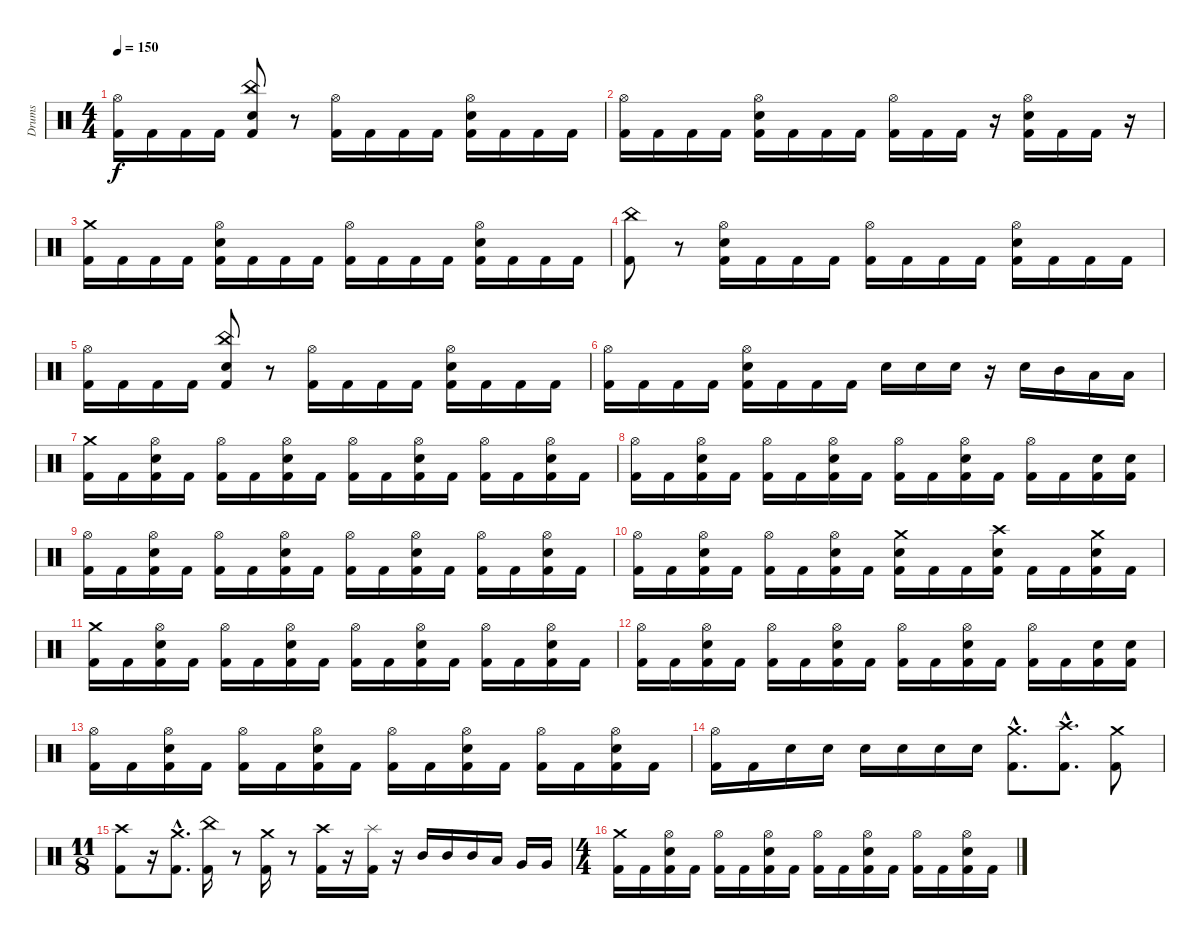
\track ("Drums" "Drums") {instrument percussion}
\staff {score}
\articulation defaults
\ts (4 4)
\tempo 150
\clef neutral
\ks c
("Hi-Hat (open)" "Kick (hit) 2").16{dy f} "Kick (hit) 2".16 "Kick (hit) 2".16 "Kick (hit) 2".16 ("China (hit)" "Electric Snare (hit)" "Kick (hit) 2").8 r.8 ("Hi-Hat (open)" "Kick (hit) 2").16 "Kick (hit) 2".16 "Kick (hit) 2".16 "Kick (hit) 2".16 ("Hi-Hat (open)" "Electric Snare (hit)" "Kick (hit) 2").16 "Kick (hit) 2".16 "Kick (hit) 2".16 "Kick (hit) 2".16 |
("Hi-Hat (open)" "Kick (hit) 2").16 "Kick (hit) 2".16 "Kick (hit) 2".16 "Kick (hit) 2".16 ("Hi-Hat (open)" "Electric Snare (hit)" "Kick (hit) 2").16 "Kick (hit) 2".16 "Kick (hit) 2".16 "Kick (hit) 2".16 ("Hi-Hat (open)" "Kick (hit) 2").16 "Kick (hit) 2".16 "Kick (hit) 2".16 r.16 ("Electric Snare (hit)" "Hi-Hat (open)" "Kick (hit) 2").16 "Kick (hit) 2".16 "Kick (hit) 2".16 r.16 |
("Crash medium (hit)" "Kick (hit) 2").16 "Kick (hit) 2".16 "Kick (hit) 2".16 "Kick (hit) 2".16 ("Hi-Hat (open)" "Electric Snare (hit)" "Kick (hit) 2").16 "Kick (hit) 2".16 "Kick (hit) 2".16 "Kick (hit) 2".16 ("Hi-Hat (open)" "Kick (hit) 2").16 "Kick (hit) 2".16 "Kick (hit) 2".16 "Kick (hit) 2".16 ("Hi-Hat (open)" "Electric Snare (hit)" "Kick (hit) 2").16 "Kick (hit) 2".16 "Kick (hit) 2".16 "Kick (hit) 2".16 |
("China (hit)" "Kick (hit) 2").8 r.8 ("Electric Snare (hit)" "Hi-Hat (open)" "Kick (hit) 2").16 "Kick (hit) 2".16 "Kick (hit) 2".16 "Kick (hit) 2".16 ("Hi-Hat (open)" "Kick (hit) 2").16 "Kick (hit) 2".16 "Kick (hit) 2".16 "Kick (hit) 2".16 ("Electric Snare (hit)" "Hi-Hat (open)" "Kick (hit) 2").16 "Kick (hit) 2".16 "Kick (hit) 2".16 "Kick (hit) 2".16 |
("Hi-Hat (open)" "Kick (hit) 2").16 "Kick (hit) 2".16 "Kick (hit) 2".16 "Kick (hit) 2".16 ("China (hit)" "Electric Snare (hit)" "Kick (hit) 2").8 r.8 ("Hi-Hat (open)" "Kick (hit) 2").16 "Kick (hit) 2".16 "Kick (hit) 2".16 "Kick (hit) 2".16 ("Hi-Hat (open)" "Electric Snare (hit)" "Kick (hit) 2").16 "Kick (hit) 2".16 "Kick (hit) 2".16 "Kick (hit) 2".16 |
("Hi-Hat (open)" "Kick (hit) 2").16 "Kick (hit) 2".16 "Kick (hit) 2".16 "Kick (hit) 2".16 ("Hi-Hat (open)" "Electric Snare (hit)" "Kick (hit) 2").16 "Kick (hit) 2".16 "Kick (hit) 2".16 "Kick (hit) 2".16 "Electric Snare (hit)".16 "Electric Snare (hit)".16 "Electric Snare (hit)".16 r.16 "Electric Snare (hit)".16 "Mid Tom (hit)".16 "Low Tom (hit)".16 "Low Floor Tom (hit)".16 |
("Crash medium (hit)" "Kick (hit) 2").16 "Kick (hit) 2".16 ("Hi-Hat (open)" "Electric Snare (hit)" "Kick (hit) 2").16 "Kick (hit) 2".16 ("Hi-Hat (open)" "Kick (hit) 2").16 "Kick (hit) 2".16 ("Hi-Hat (open)" "Electric Snare (hit)" "Kick (hit) 2").16 "Kick (hit) 2".16 ("Hi-Hat (open)" "Kick (hit) 2").16 "Kick (hit) 2".16 ("Hi-Hat (open)" "Electric Snare (hit)" "Kick (hit) 2").16 "Kick (hit) 2".16 ("Hi-Hat (open)" "Kick (hit) 2").16 "Kick (hit) 2".16 ("Hi-Hat (open)" "Electric Snare (hit)" "Kick (hit) 2").16 "Kick (hit) 2".16 |
("Hi-Hat (open)" "Kick (hit) 2").16 "Kick (hit) 2".16 ("Hi-Hat (open)" "Electric Snare (hit)" "Kick (hit) 2").16 "Kick (hit) 2".16 ("Hi-Hat (open)" "Kick (hit) 2").16 "Kick (hit) 2".16 ("Hi-Hat (open)" "Electric Snare (hit)" "Kick (hit) 2").16 "Kick (hit) 2".16 ("Hi-Hat (open)" "Kick (hit) 2").16 "Kick (hit) 2".16 ("Hi-Hat (open)" "Electric Snare (hit)" "Kick (hit) 2").16 "Kick (hit) 2".16 ("Hi-Hat (open)" "Kick (hit) 2").16 "Kick (hit) 2".16 ("Electric Snare (hit)" "Kick (hit) 2").16 ("Electric Snare (hit)" "Kick (hit) 2").16 |
("Hi-Hat (open)" "Kick (hit) 2").16 "Kick (hit) 2".16 ("Hi-Hat (open)" "Electric Snare (hit)" "Kick (hit) 2").16 "Kick (hit) 2".16 ("Hi-Hat (open)" "Kick (hit) 2").16 "Kick (hit) 2".16 ("Hi-Hat (open)" "Electric Snare (hit)" "Kick (hit) 2").16 "Kick (hit) 2".16 ("Hi-Hat (open)" "Kick (hit) 2").16 "Kick (hit) 2".16 ("Hi-Hat (open)" "Electric Snare (hit)" "Kick (hit) 2").16 "Kick (hit) 2".16 ("Hi-Hat (open)" "Kick (hit) 2").16 "Kick (hit) 2".16 ("Hi-Hat (open)" "Electric Snare (hit)" "Kick (hit) 2").16 "Kick (hit) 2".16 |
("Hi-Hat (open)" "Kick (hit) 2").16 "Kick (hit) 2".16 ("Hi-Hat (open)" "Electric Snare (hit)" "Kick (hit) 2").16 "Kick (hit) 2".16 ("Hi-Hat (open)" "Kick (hit) 2").16 "Kick (hit) 2".16 ("Hi-Hat (open)" "Electric Snare (hit)" "Kick (hit) 2").16 "Kick (hit) 2".16 ("Electric Snare (hit)" "Crash medium (hit)" "Kick (hit) 2").16 "Kick (hit) 2".16 "Kick (hit) 2".16 ("Electric Snare (hit)" "Crash high (hit)" "Kick (hit) 2").16 "Kick (hit) 2".16 "Kick (hit) 2".16 ("Electric Snare (hit)" "Crash medium (hit)" "Kick (hit) 2").16 "Kick (hit) 2".16 |
("Crash medium (hit)" "Kick (hit) 2").16 "Kick (hit) 2".16 ("Hi-Hat (open)" "Electric Snare (hit)" "Kick (hit) 2").16 "Kick (hit) 2".16 ("Hi-Hat (open)" "Kick (hit) 2").16 "Kick (hit) 2".16 ("Hi-Hat (open)" "Electric Snare (hit)" "Kick (hit) 2").16 "Kick (hit) 2".16 ("Hi-Hat (open)" "Kick (hit) 2").16 "Kick (hit) 2".16 ("Hi-Hat (open)" "Electric Snare (hit)" "Kick (hit) 2").16 "Kick (hit) 2".16 ("Hi-Hat (open)" "Kick (hit) 2").16 "Kick (hit) 2".16 ("Hi-Hat (open)" "Electric Snare (hit)" "Kick (hit) 2").16 "Kick (hit) 2".16 |
("Hi-Hat (open)" "Kick (hit) 2").16 "Kick (hit) 2".16 ("Hi-Hat (open)" "Electric Snare (hit)" "Kick (hit) 2").16 "Kick (hit) 2".16 ("Hi-Hat (open)" "Kick (hit) 2").16 "Kick (hit) 2".16 ("Hi-Hat (open)" "Electric Snare (hit)" "Kick (hit) 2").16 "Kick (hit) 2".16 ("Hi-Hat (open)" "Kick (hit) 2").16 "Kick (hit) 2".16 ("Hi-Hat (open)" "Electric Snare (hit)" "Kick (hit) 2").16 "Kick (hit) 2".16 ("Hi-Hat (open)" "Kick (hit) 2").16 "Kick (hit) 2".16 ("Electric Snare (hit)" "Kick (hit) 2").16 ("Electric Snare (hit)" "Kick (hit) 2").16 |
("Hi-Hat (open)" "Kick (hit) 2").16 "Kick (hit) 2".16 ("Hi-Hat (open)" "Electric Snare (hit)" "Kick (hit) 2").16 "Kick (hit) 2".16 ("Hi-Hat (open)" "Kick (hit) 2").16 "Kick (hit) 2".16 ("Hi-Hat (open)" "Electric Snare (hit)" "Kick (hit) 2").16 "Kick (hit) 2".16 ("Hi-Hat (open)" "Kick (hit) 2").16 "Kick (hit) 2".16 ("Hi-Hat (open)" "Electric Snare (hit)" "Kick (hit) 2").16 "Kick (hit) 2".16 ("Hi-Hat (open)" "Kick (hit) 2").16 "Kick (hit) 2".16 ("Hi-Hat (open)" "Electric Snare (hit)" "Kick (hit) 2").16 "Kick (hit) 2".16 |
("Hi-Hat (open)" "Kick (hit) 2").16 "Kick (hit) 2".16 "Electric Snare (hit)".16 "Electric Snare (hit)".16 "Electric Snare (hit)".16 "Electric Snare (hit)".16 "Electric Snare (hit)".16 "Electric Snare (hit)".16 ("Crash medium (hit)" "Kick (hit) 2"{hac}).8{d} ("Crash high (hit)" "Kick (hit) 2"{hac}).8{d} ("Crash medium (hit)" "Kick (hit) 2").8 |
\ts (11 8)
("Crash high (hit)" "Kick (hit) 2").8 r.16 ("Crash medium (hit)" "Kick (hit) 2"{hac}).8{d} ("China (hit)" "Kick (hit) 2").16 r.8 ("Crash medium (hit)" "Kick (hit) 2").16 r.8 ("Crash high (hit)" "Kick (hit) 2").16 r.16 ("Splash (hit)" "Kick (hit) 2").16 r.16 "Mid Tom (hit)".16 "Mid Tom (hit)".16 "Mid Tom (hit)".16 "Low Tom (hit)".16 "Very Low Tom (hit)".16 "Very Low Tom (hit)".16 |
\ts (4 4)
("Crash medium (hit)" "Kick (hit) 2").16 "Kick (hit) 2".16 ("Hi-Hat (open)" "Electric Snare (hit)" "Kick (hit) 2").16 "Kick (hit) 2".16 ("Hi-Hat (open)" "Kick (hit) 2").16 "Kick (hit) 2".16 ("Hi-Hat (open)" "Electric Snare (hit)" "Kick (hit) 2").16 "Kick (hit) 2".16 ("Hi-Hat (open)" "Kick (hit) 2").16 "Kick (hit) 2".16 ("Hi-Hat (open)" "Electric Snare (hit)" "Kick (hit) 2").16 "Kick (hit) 2".16 ("Hi-Hat (open)" "Kick (hit) 2").16 "Kick (hit) 2".16 ("Hi-Hat (open)" "Electric Snare (hit)" "Kick (hit) 2").16 "Kick (hit) 2".16
